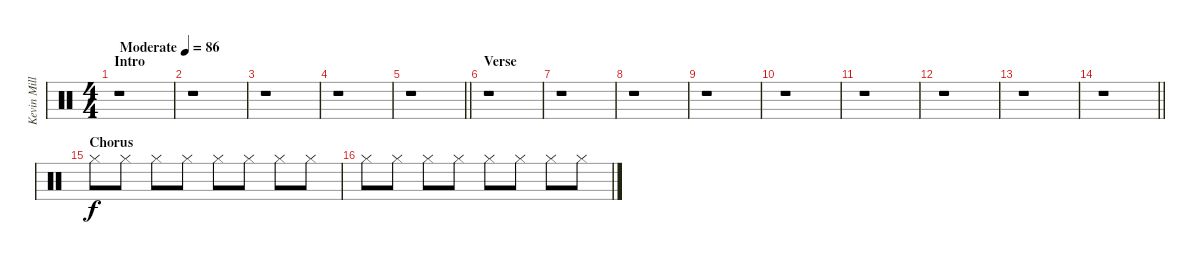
\track ("Kevin Miller (Drums)" "Kevin Mill") {instrument percussion}
\staff {score}
\articulation defaults
\ts (4 4)
\section ("" "Intro")
\tempo (86 "Moderate")
\clef neutral
\ks c
r.1{dy f} |
r.1 |
r.1 |
r.1 |
\barLineRight lightlight
r.1 |
\section ("" "Verse")
r.1 |
r.1 |
r.1 |
r.1 |
r.1 |
r.1 |
r.1 |
r.1 |
\barLineRight lightlight
r.1 |
\section ("" "Chorus")
"Hi-Hat (closed)".8 "Hi-Hat (closed)".8 "Hi-Hat (closed)".8 "Hi-Hat (closed)".8 "Hi-Hat (closed)".8 "Hi-Hat (closed)".8 "Hi-Hat (closed)".8 "Hi-Hat (closed)".8 |
"Hi-Hat (closed)".8 "Hi-Hat (closed)".8 "Hi-Hat (closed)".8 "Hi-Hat (closed)".8 "Hi-Hat (closed)".8 "Hi-Hat (closed)".8 "Hi-Hat (closed)".8 "Hi-Hat (closed)".8
